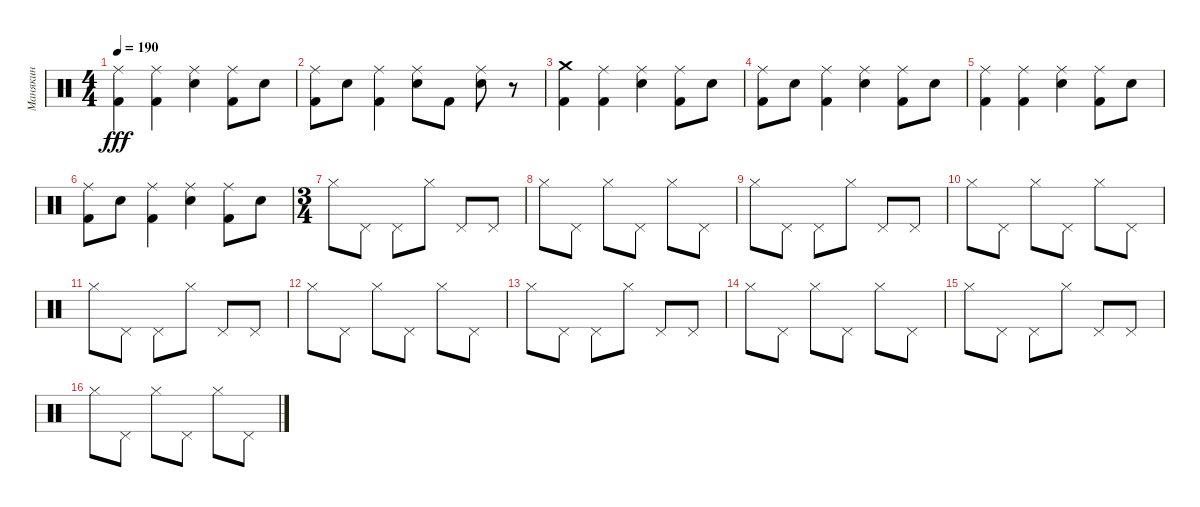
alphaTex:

\track ("Манякин" "Манякин") {instrument percussion}
\staff {score}
\articulation defaults
\ts (4 4)
\tempo 190
\clef neutral
\ks c
("Kick (hit) 2" "Ride (middle)").4{dy fff} ("Kick (hit) 2" "Ride (middle)").4 ("Snare (hit) 2" "Ride (middle)").4 ("Kick (hit) 2" "Ride (middle)").8 "Snare (hit) 2".8 |
("Kick (hit) 2" "Ride (middle)").8 "Snare (hit) 2".8 ("Kick (hit) 2" "Ride (middle)").4 ("Snare (hit) 2" "Ride (middle)").8 "Kick (hit) 2".8 ("Snare (hit) 2" "Ride (middle)").8 r.8 |
("Kick (hit) 2" "Crash medium (hit)").4 ("Kick (hit) 2" "Ride (middle)").4 ("Snare (hit) 2" "Ride (middle)").4 ("Kick (hit) 2" "Ride (middle)").8 "Snare (hit) 2".8 |
("Kick (hit) 2" "Ride (middle)").8 "Snare (hit) 2".8 ("Kick (hit) 2" "Ride (middle)").4 ("Snare (hit) 2" "Ride (middle)").4 ("Kick (hit) 2" "Ride (middle)").8 "Snare (hit) 2".8 |
("Kick (hit) 2" "Ride (middle)").4 ("Kick (hit) 2" "Ride (middle)").4 ("Snare (hit) 2" "Ride (middle)").4 ("Kick (hit) 2" "Ride (middle)").8 "Snare (hit) 2".8 |
("Kick (hit) 2" "Ride (middle)").8 "Snare (hit) 2".8 ("Kick (hit) 2" "Ride (middle)").4 ("Snare (hit) 2" "Ride (middle)").4 ("Kick (hit) 2" "Ride (middle)").8 "Snare (hit) 2".8 |
\ts (3 4)
"Hi-Hat (closed)".8 "Pedal Hi-Hat (hit)".8 "Pedal Hi-Hat (hit)".8 "Hi-Hat (closed)".8 "Pedal Hi-Hat (hit)".8 "Pedal Hi-Hat (hit)".8 |
"Hi-Hat (closed)".8 "Pedal Hi-Hat (hit)".8 "Hi-Hat (closed)".8 "Pedal Hi-Hat (hit)".8 "Hi-Hat (closed)".8 "Pedal Hi-Hat (hit)".8 |
"Hi-Hat (closed)".8 "Pedal Hi-Hat (hit)".8 "Pedal Hi-Hat (hit)".8 "Hi-Hat (closed)".8 "Pedal Hi-Hat (hit)".8 "Pedal Hi-Hat (hit)".8 |
"Hi-Hat (closed)".8 "Pedal Hi-Hat (hit)".8 "Hi-Hat (closed)".8 "Pedal Hi-Hat (hit)".8 "Hi-Hat (closed)".8 "Pedal Hi-Hat (hit)".8 |
"Hi-Hat (closed)".8 "Pedal Hi-Hat (hit)".8 "Pedal Hi-Hat (hit)".8 "Hi-Hat (closed)".8 "Pedal Hi-Hat (hit)".8 "Pedal Hi-Hat (hit)".8 |
"Hi-Hat (closed)".8 "Pedal Hi-Hat (hit)".8 "Hi-Hat (closed)".8 "Pedal Hi-Hat (hit)".8 "Hi-Hat (closed)".8 "Pedal Hi-Hat (hit)".8 |
"Hi-Hat (closed)".8 "Pedal Hi-Hat (hit)".8 "Pedal Hi-Hat (hit)".8 "Hi-Hat (closed)".8 "Pedal Hi-Hat (hit)".8 "Pedal Hi-Hat (hit)".8 |
"Hi-Hat (closed)".8 "Pedal Hi-Hat (hit)".8 "Hi-Hat (closed)".8 "Pedal Hi-Hat (hit)".8 "Hi-Hat (closed)".8 "Pedal Hi-Hat (hit)".8 |
"Hi-Hat (closed)".8 "Pedal Hi-Hat (hit)".8 "Pedal Hi-Hat (hit)".8 "Hi-Hat (closed)".8 "Pedal Hi-Hat (hit)".8 "Pedal Hi-Hat (hit)".8 |
"Hi-Hat (closed)".8 "Pedal Hi-Hat (hit)".8 "Hi-Hat (closed)".8 "Pedal Hi-Hat (hit)".8 "Hi-Hat (closed)".8 "Pedal Hi-Hat (hit)".8
